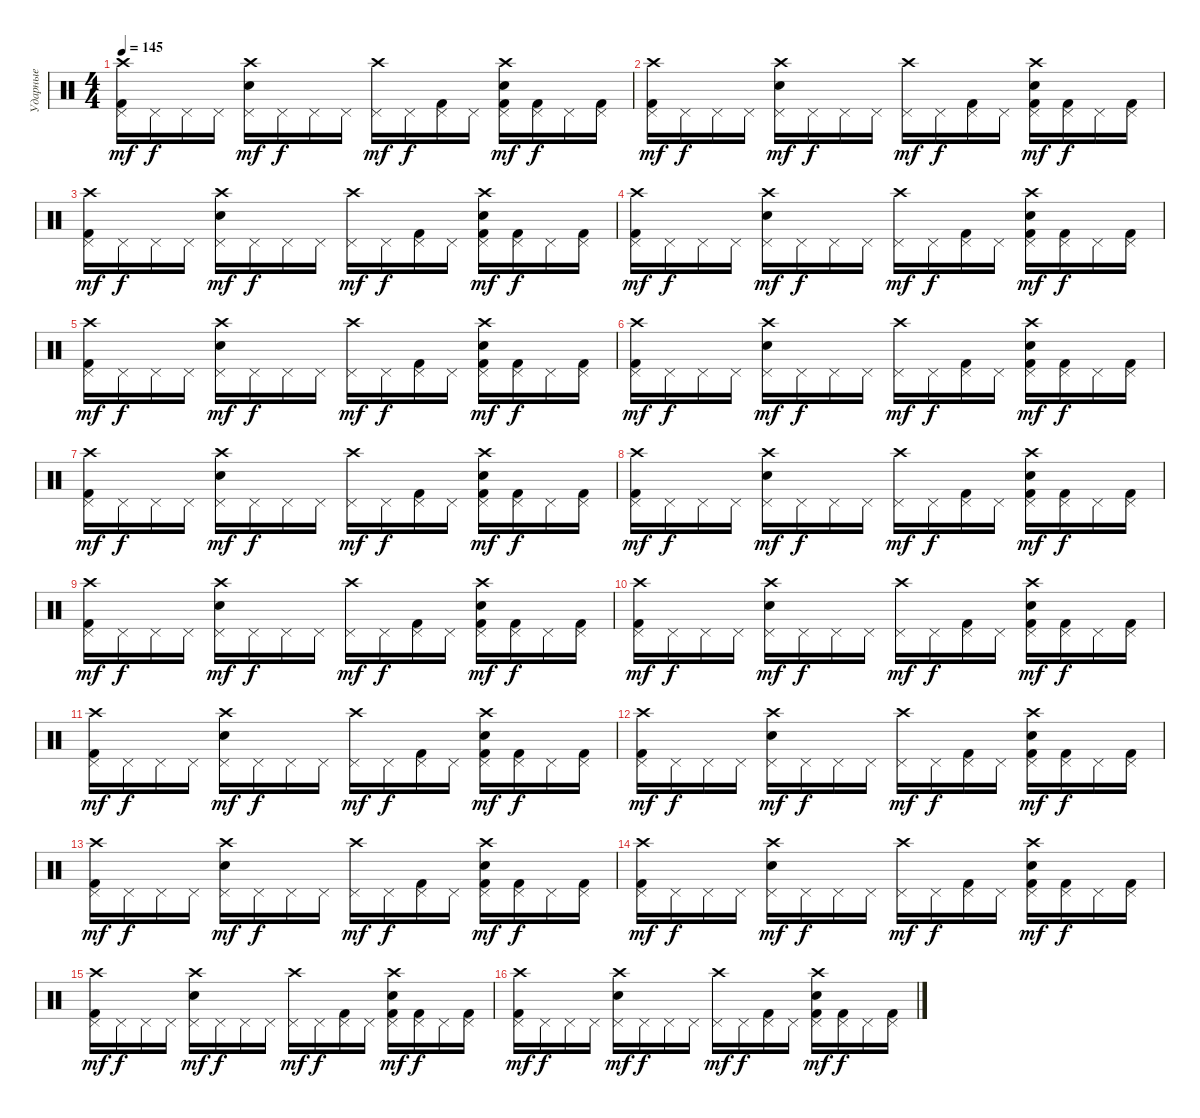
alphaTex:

\track ("Ударные" "Ударные") {instrument percussion}
\staff {score}
\articulation defaults
\ts (4 4)
\tempo 145
\clef neutral
\ks c
("Crash high (hit)" "Kick (hit) 2" "Pedal Hi-Hat (hit)").16{dy mf} "Pedal Hi-Hat (hit)".16{dy f} "Pedal Hi-Hat (hit)".16 "Pedal Hi-Hat (hit)".16 ("Crash high (hit)" "Electric Snare (hit)" "Pedal Hi-Hat (hit)").16{dy mf} "Pedal Hi-Hat (hit)".16{dy f} "Pedal Hi-Hat (hit)".16 "Pedal Hi-Hat (hit)".16 ("Crash high (hit)" "Pedal Hi-Hat (hit)").16{dy mf} "Pedal Hi-Hat (hit)".16{dy f} ("Kick (hit) 2" "Pedal Hi-Hat (hit)").16 "Pedal Hi-Hat (hit)".16 ("Crash high (hit)" "Kick (hit) 2" "Electric Snare (hit)" "Pedal Hi-Hat (hit)").16{dy mf} ("Kick (hit) 2" "Pedal Hi-Hat (hit)").16{dy f} "Pedal Hi-Hat (hit)".16 ("Kick (hit) 2" "Pedal Hi-Hat (hit)").16 |
("Crash high (hit)" "Kick (hit) 2" "Pedal Hi-Hat (hit)").16{dy mf} "Pedal Hi-Hat (hit)".16{dy f} "Pedal Hi-Hat (hit)".16 "Pedal Hi-Hat (hit)".16 ("Crash high (hit)" "Electric Snare (hit)" "Pedal Hi-Hat (hit)").16{dy mf} "Pedal Hi-Hat (hit)".16{dy f} "Pedal Hi-Hat (hit)".16 "Pedal Hi-Hat (hit)".16 ("Crash high (hit)" "Pedal Hi-Hat (hit)").16{dy mf} "Pedal Hi-Hat (hit)".16{dy f} ("Kick (hit) 2" "Pedal Hi-Hat (hit)").16 "Pedal Hi-Hat (hit)".16 ("Crash high (hit)" "Kick (hit) 2" "Electric Snare (hit)" "Pedal Hi-Hat (hit)").16{dy mf} ("Kick (hit) 2" "Pedal Hi-Hat (hit)").16{dy f} "Pedal Hi-Hat (hit)".16 ("Kick (hit) 2" "Pedal Hi-Hat (hit)").16 |
("Crash high (hit)" "Kick (hit) 2" "Pedal Hi-Hat (hit)").16{dy mf} "Pedal Hi-Hat (hit)".16{dy f} "Pedal Hi-Hat (hit)".16 "Pedal Hi-Hat (hit)".16 ("Crash high (hit)" "Electric Snare (hit)" "Pedal Hi-Hat (hit)").16{dy mf} "Pedal Hi-Hat (hit)".16{dy f} "Pedal Hi-Hat (hit)".16 "Pedal Hi-Hat (hit)".16 ("Crash high (hit)" "Pedal Hi-Hat (hit)").16{dy mf} "Pedal Hi-Hat (hit)".16{dy f} ("Kick (hit) 2" "Pedal Hi-Hat (hit)").16 "Pedal Hi-Hat (hit)".16 ("Crash high (hit)" "Kick (hit) 2" "Electric Snare (hit)" "Pedal Hi-Hat (hit)").16{dy mf} ("Kick (hit) 2" "Pedal Hi-Hat (hit)").16{dy f} "Pedal Hi-Hat (hit)".16 ("Kick (hit) 2" "Pedal Hi-Hat (hit)").16 |
("Crash high (hit)" "Kick (hit) 2" "Pedal Hi-Hat (hit)").16{dy mf} "Pedal Hi-Hat (hit)".16{dy f} "Pedal Hi-Hat (hit)".16 "Pedal Hi-Hat (hit)".16 ("Crash high (hit)" "Electric Snare (hit)" "Pedal Hi-Hat (hit)").16{dy mf} "Pedal Hi-Hat (hit)".16{dy f} "Pedal Hi-Hat (hit)".16 "Pedal Hi-Hat (hit)".16 ("Crash high (hit)" "Pedal Hi-Hat (hit)").16{dy mf} "Pedal Hi-Hat (hit)".16{dy f} ("Kick (hit) 2" "Pedal Hi-Hat (hit)").16 "Pedal Hi-Hat (hit)".16 ("Crash high (hit)" "Kick (hit) 2" "Electric Snare (hit)" "Pedal Hi-Hat (hit)").16{dy mf} ("Kick (hit) 2" "Pedal Hi-Hat (hit)").16{dy f} "Pedal Hi-Hat (hit)".16 ("Kick (hit) 2" "Pedal Hi-Hat (hit)").16 |
("Kick (hit) 2" "Pedal Hi-Hat (hit)" "Crash high (hit)").16{dy mf} "Pedal Hi-Hat (hit)".16{dy f} "Pedal Hi-Hat (hit)".16 "Pedal Hi-Hat (hit)".16 ("Electric Snare (hit)" "Pedal Hi-Hat (hit)" "Crash high (hit)").16{dy mf} "Pedal Hi-Hat (hit)".16{dy f} "Pedal Hi-Hat (hit)".16 "Pedal Hi-Hat (hit)".16 ("Pedal Hi-Hat (hit)" "Crash high (hit)").16{dy mf} "Pedal Hi-Hat (hit)".16{dy f} ("Kick (hit) 2" "Pedal Hi-Hat (hit)").16 "Pedal Hi-Hat (hit)".16 ("Kick (hit) 2" "Electric Snare (hit)" "Pedal Hi-Hat (hit)" "Crash high (hit)").16{dy mf} ("Kick (hit) 2" "Pedal Hi-Hat (hit)").16{dy f} "Pedal Hi-Hat (hit)".16 ("Kick (hit) 2" "Pedal Hi-Hat (hit)").16 |
("Kick (hit) 2" "Pedal Hi-Hat (hit)" "Crash high (hit)").16{dy mf} "Pedal Hi-Hat (hit)".16{dy f} "Pedal Hi-Hat (hit)".16 "Pedal Hi-Hat (hit)".16 ("Electric Snare (hit)" "Pedal Hi-Hat (hit)" "Crash high (hit)").16{dy mf} "Pedal Hi-Hat (hit)".16{dy f} "Pedal Hi-Hat (hit)".16 "Pedal Hi-Hat (hit)".16 ("Pedal Hi-Hat (hit)" "Crash high (hit)").16{dy mf} "Pedal Hi-Hat (hit)".16{dy f} ("Kick (hit) 2" "Pedal Hi-Hat (hit)").16 "Pedal Hi-Hat (hit)".16 ("Kick (hit) 2" "Electric Snare (hit)" "Pedal Hi-Hat (hit)" "Crash high (hit)").16{dy mf} ("Kick (hit) 2" "Pedal Hi-Hat (hit)").16{dy f} "Pedal Hi-Hat (hit)".16 ("Kick (hit) 2" "Pedal Hi-Hat (hit)").16 |
("Crash high (hit)" "Kick (hit) 2" "Pedal Hi-Hat (hit)").16{dy mf} "Pedal Hi-Hat (hit)".16{dy f} "Pedal Hi-Hat (hit)".16 "Pedal Hi-Hat (hit)".16 ("Crash high (hit)" "Electric Snare (hit)" "Pedal Hi-Hat (hit)").16{dy mf} "Pedal Hi-Hat (hit)".16{dy f} "Pedal Hi-Hat (hit)".16 "Pedal Hi-Hat (hit)".16 ("Crash high (hit)" "Pedal Hi-Hat (hit)").16{dy mf} "Pedal Hi-Hat (hit)".16{dy f} ("Kick (hit) 2" "Pedal Hi-Hat (hit)").16 "Pedal Hi-Hat (hit)".16 ("Crash high (hit)" "Kick (hit) 2" "Electric Snare (hit)" "Pedal Hi-Hat (hit)").16{dy mf} ("Kick (hit) 2" "Pedal Hi-Hat (hit)").16{dy f} "Pedal Hi-Hat (hit)".16 ("Kick (hit) 2" "Pedal Hi-Hat (hit)").16 |
("Crash high (hit)" "Kick (hit) 2" "Pedal Hi-Hat (hit)").16{dy mf} "Pedal Hi-Hat (hit)".16{dy f} "Pedal Hi-Hat (hit)".16 "Pedal Hi-Hat (hit)".16 ("Crash high (hit)" "Electric Snare (hit)" "Pedal Hi-Hat (hit)").16{dy mf} "Pedal Hi-Hat (hit)".16{dy f} "Pedal Hi-Hat (hit)".16 "Pedal Hi-Hat (hit)".16 ("Crash high (hit)" "Pedal Hi-Hat (hit)").16{dy mf} "Pedal Hi-Hat (hit)".16{dy f} ("Kick (hit) 2" "Pedal Hi-Hat (hit)").16 "Pedal Hi-Hat (hit)".16 ("Crash high (hit)" "Kick (hit) 2" "Electric Snare (hit)" "Pedal Hi-Hat (hit)").16{dy mf} ("Kick (hit) 2" "Pedal Hi-Hat (hit)").16{dy f} "Pedal Hi-Hat (hit)".16 ("Kick (hit) 2" "Pedal Hi-Hat (hit)").16 |
("Crash high (hit)" "Kick (hit) 2" "Pedal Hi-Hat (hit)").16{dy mf} "Pedal Hi-Hat (hit)".16{dy f} "Pedal Hi-Hat (hit)".16 "Pedal Hi-Hat (hit)".16 ("Crash high (hit)" "Electric Snare (hit)" "Pedal Hi-Hat (hit)").16{dy mf} "Pedal Hi-Hat (hit)".16{dy f} "Pedal Hi-Hat (hit)".16 "Pedal Hi-Hat (hit)".16 ("Crash high (hit)" "Pedal Hi-Hat (hit)").16{dy mf} "Pedal Hi-Hat (hit)".16{dy f} ("Kick (hit) 2" "Pedal Hi-Hat (hit)").16 "Pedal Hi-Hat (hit)".16 ("Crash high (hit)" "Kick (hit) 2" "Electric Snare (hit)" "Pedal Hi-Hat (hit)").16{dy mf} ("Kick (hit) 2" "Pedal Hi-Hat (hit)").16{dy f} "Pedal Hi-Hat (hit)".16 ("Kick (hit) 2" "Pedal Hi-Hat (hit)").16 |
("Crash high (hit)" "Kick (hit) 2" "Pedal Hi-Hat (hit)").16{dy mf} "Pedal Hi-Hat (hit)".16{dy f} "Pedal Hi-Hat (hit)".16 "Pedal Hi-Hat (hit)".16 ("Crash high (hit)" "Electric Snare (hit)" "Pedal Hi-Hat (hit)").16{dy mf} "Pedal Hi-Hat (hit)".16{dy f} "Pedal Hi-Hat (hit)".16 "Pedal Hi-Hat (hit)".16 ("Crash high (hit)" "Pedal Hi-Hat (hit)").16{dy mf} "Pedal Hi-Hat (hit)".16{dy f} ("Kick (hit) 2" "Pedal Hi-Hat (hit)").16 "Pedal Hi-Hat (hit)".16 ("Crash high (hit)" "Kick (hit) 2" "Electric Snare (hit)" "Pedal Hi-Hat (hit)").16{dy mf} ("Kick (hit) 2" "Pedal Hi-Hat (hit)").16{dy f} "Pedal Hi-Hat (hit)".16 ("Kick (hit) 2" "Pedal Hi-Hat (hit)").16 |
("Kick (hit) 2" "Pedal Hi-Hat (hit)" "Crash high (hit)").16{dy mf} "Pedal Hi-Hat (hit)".16{dy f} "Pedal Hi-Hat (hit)".16 "Pedal Hi-Hat (hit)".16 ("Electric Snare (hit)" "Pedal Hi-Hat (hit)" "Crash high (hit)").16{dy mf} "Pedal Hi-Hat (hit)".16{dy f} "Pedal Hi-Hat (hit)".16 "Pedal Hi-Hat (hit)".16 ("Pedal Hi-Hat (hit)" "Crash high (hit)").16{dy mf} "Pedal Hi-Hat (hit)".16{dy f} ("Kick (hit) 2" "Pedal Hi-Hat (hit)").16 "Pedal Hi-Hat (hit)".16 ("Kick (hit) 2" "Electric Snare (hit)" "Pedal Hi-Hat (hit)" "Crash high (hit)").16{dy mf} ("Kick (hit) 2" "Pedal Hi-Hat (hit)").16{dy f} "Pedal Hi-Hat (hit)".16 ("Kick (hit) 2" "Pedal Hi-Hat (hit)").16 |
("Kick (hit) 2" "Pedal Hi-Hat (hit)" "Crash high (hit)").16{dy mf} "Pedal Hi-Hat (hit)".16{dy f} "Pedal Hi-Hat (hit)".16 "Pedal Hi-Hat (hit)".16 ("Electric Snare (hit)" "Pedal Hi-Hat (hit)" "Crash high (hit)").16{dy mf} "Pedal Hi-Hat (hit)".16{dy f} "Pedal Hi-Hat (hit)".16 "Pedal Hi-Hat (hit)".16 ("Pedal Hi-Hat (hit)" "Crash high (hit)").16{dy mf} "Pedal Hi-Hat (hit)".16{dy f} ("Kick (hit) 2" "Pedal Hi-Hat (hit)").16 "Pedal Hi-Hat (hit)".16 ("Kick (hit) 2" "Electric Snare (hit)" "Pedal Hi-Hat (hit)" "Crash high (hit)").16{dy mf} ("Kick (hit) 2" "Pedal Hi-Hat (hit)").16{dy f} "Pedal Hi-Hat (hit)".16 ("Kick (hit) 2" "Pedal Hi-Hat (hit)").16 |
("Crash high (hit)" "Kick (hit) 2" "Pedal Hi-Hat (hit)").16{dy mf} "Pedal Hi-Hat (hit)".16{dy f} "Pedal Hi-Hat (hit)".16 "Pedal Hi-Hat (hit)".16 ("Crash high (hit)" "Electric Snare (hit)" "Pedal Hi-Hat (hit)").16{dy mf} "Pedal Hi-Hat (hit)".16{dy f} "Pedal Hi-Hat (hit)".16 "Pedal Hi-Hat (hit)".16 ("Crash high (hit)" "Pedal Hi-Hat (hit)").16{dy mf} "Pedal Hi-Hat (hit)".16{dy f} ("Kick (hit) 2" "Pedal Hi-Hat (hit)").16 "Pedal Hi-Hat (hit)".16 ("Crash high (hit)" "Kick (hit) 2" "Electric Snare (hit)" "Pedal Hi-Hat (hit)").16{dy mf} ("Kick (hit) 2" "Pedal Hi-Hat (hit)").16{dy f} "Pedal Hi-Hat (hit)".16 ("Kick (hit) 2" "Pedal Hi-Hat (hit)").16 |
("Crash high (hit)" "Kick (hit) 2" "Pedal Hi-Hat (hit)").16{dy mf} "Pedal Hi-Hat (hit)".16{dy f} "Pedal Hi-Hat (hit)".16 "Pedal Hi-Hat (hit)".16 ("Crash high (hit)" "Electric Snare (hit)" "Pedal Hi-Hat (hit)").16{dy mf} "Pedal Hi-Hat (hit)".16{dy f} "Pedal Hi-Hat (hit)".16 "Pedal Hi-Hat (hit)".16 ("Crash high (hit)" "Pedal Hi-Hat (hit)").16{dy mf} "Pedal Hi-Hat (hit)".16{dy f} ("Kick (hit) 2" "Pedal Hi-Hat (hit)").16 "Pedal Hi-Hat (hit)".16 ("Crash high (hit)" "Kick (hit) 2" "Electric Snare (hit)" "Pedal Hi-Hat (hit)").16{dy mf} ("Kick (hit) 2" "Pedal Hi-Hat (hit)").16{dy f} "Pedal Hi-Hat (hit)".16 ("Kick (hit) 2" "Pedal Hi-Hat (hit)").16 |
("Crash high (hit)" "Kick (hit) 2" "Pedal Hi-Hat (hit)").16{dy mf} "Pedal Hi-Hat (hit)".16{dy f} "Pedal Hi-Hat (hit)".16 "Pedal Hi-Hat (hit)".16 ("Crash high (hit)" "Electric Snare (hit)" "Pedal Hi-Hat (hit)").16{dy mf} "Pedal Hi-Hat (hit)".16{dy f} "Pedal Hi-Hat (hit)".16 "Pedal Hi-Hat (hit)".16 ("Crash high (hit)" "Pedal Hi-Hat (hit)").16{dy mf} "Pedal Hi-Hat (hit)".16{dy f} ("Kick (hit) 2" "Pedal Hi-Hat (hit)").16 "Pedal Hi-Hat (hit)".16 ("Crash high (hit)" "Kick (hit) 2" "Electric Snare (hit)" "Pedal Hi-Hat (hit)").16{dy mf} ("Kick (hit) 2" "Pedal Hi-Hat (hit)").16{dy f} "Pedal Hi-Hat (hit)".16 ("Kick (hit) 2" "Pedal Hi-Hat (hit)").16 |
("Crash high (hit)" "Kick (hit) 2" "Pedal Hi-Hat (hit)").16{dy mf} "Pedal Hi-Hat (hit)".16{dy f} "Pedal Hi-Hat (hit)".16 "Pedal Hi-Hat (hit)".16 ("Crash high (hit)" "Electric Snare (hit)" "Pedal Hi-Hat (hit)").16{dy mf} "Pedal Hi-Hat (hit)".16{dy f} "Pedal Hi-Hat (hit)".16 "Pedal Hi-Hat (hit)".16 ("Crash high (hit)" "Pedal Hi-Hat (hit)").16{dy mf} "Pedal Hi-Hat (hit)".16{dy f} ("Kick (hit) 2" "Pedal Hi-Hat (hit)").16 "Pedal Hi-Hat (hit)".16 ("Crash high (hit)" "Kick (hit) 2" "Electric Snare (hit)" "Pedal Hi-Hat (hit)").16{dy mf} ("Kick (hit) 2" "Pedal Hi-Hat (hit)").16{dy f} "Pedal Hi-Hat (hit)".16 ("Kick (hit) 2" "Pedal Hi-Hat (hit)").16
